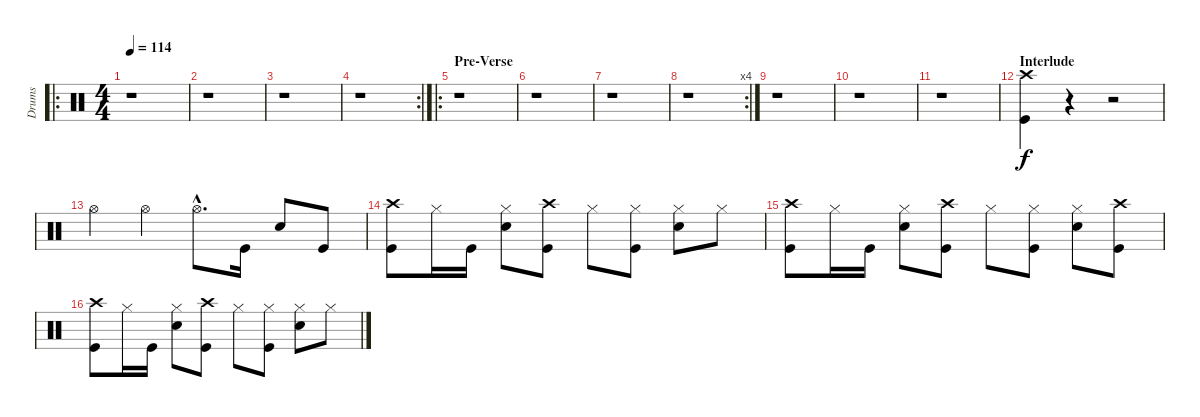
\track ("Drums" "Drums") {instrument percussion}
\staff {score}
\articulation defaults
\ro
\ts (4 4)
\tempo 114
\clef neutral
\ks c
r.1{dy f} |
r.1 |
r.1 |
\rc 2
r.1 |
\ro
\section ("" "Pre-Verse")
r.1 |
r.1 |
r.1 |
\rc 4
r.1 |
r.1 |
r.1 |
r.1 |
\section ("" "Interlude")
("Kick (hit)" "Crash high (hit)").4 r.4 r.2 |
"Hi-Hat (open)".4 "Hi-Hat (open)".4 "Hi-Hat (open)"{hac}.8{d} "Kick (hit)".16 "Snare (hit) 2".8 "Kick (hit)".8 |
("Crash high (hit)" "Kick (hit)").8 "Hi-Hat (closed)".16 "Kick (hit)".16 ("Hi-Hat (closed)" "Snare (hit) 2").8 ("Crash high (hit)" "Kick (hit)").8 "Hi-Hat (closed)".8 ("Hi-Hat (closed)" "Kick (hit)").8 ("Hi-Hat (closed)" "Snare (hit) 2").8 "Hi-Hat (closed)".8 |
("Crash high (hit)" "Kick (hit)").8 "Hi-Hat (closed)".16 "Kick (hit)".16 ("Hi-Hat (closed)" "Snare (hit) 2").8 ("Crash high (hit)" "Kick (hit)").8 "Hi-Hat (closed)".8 ("Hi-Hat (closed)" "Kick (hit)").8 ("Hi-Hat (closed)" "Snare (hit) 2").8 ("Crash high (hit)" "Kick (hit)").8 |
("Crash high (hit)" "Kick (hit)").8 "Hi-Hat (closed)".16 "Kick (hit)".16 ("Hi-Hat (closed)" "Snare (hit) 2").8 ("Crash high (hit)" "Kick (hit)").8 "Hi-Hat (closed)".8 ("Hi-Hat (closed)" "Kick (hit)").8 ("Hi-Hat (closed)" "Snare (hit) 2").8 "Hi-Hat (closed)".8
